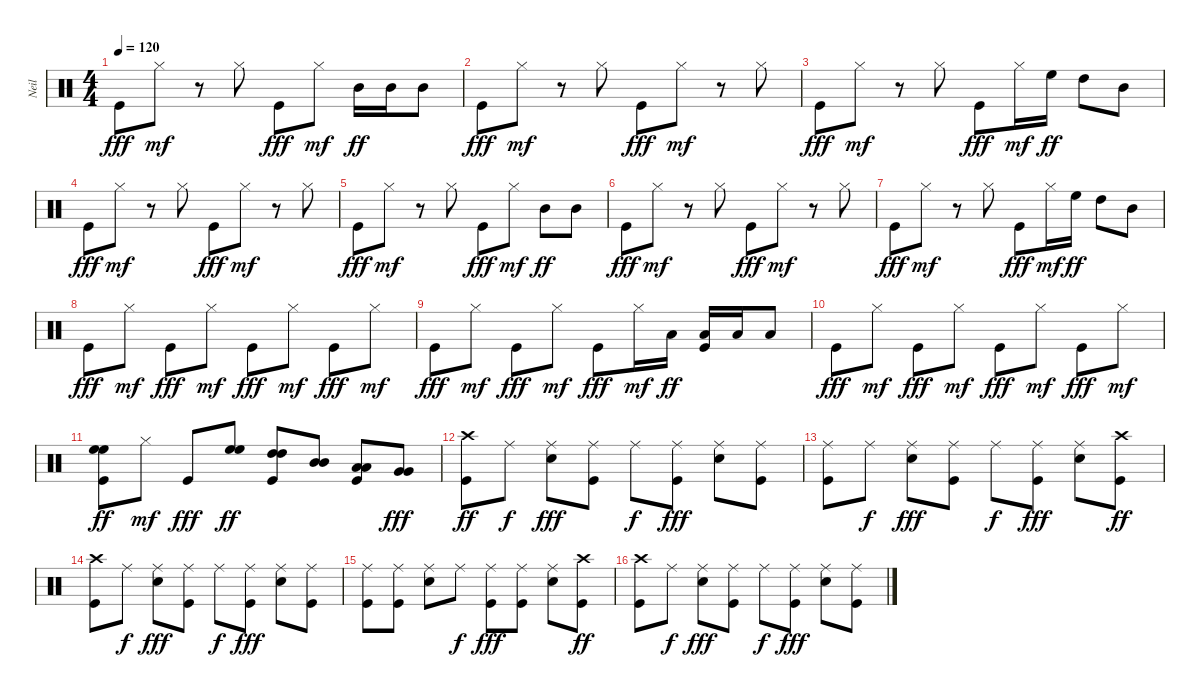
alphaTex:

\track ("Neil" "Neil") {instrument percussion}
\staff {score}
\articulation defaults
\ts (4 4)
\tempo 120
\clef neutral
\ks c "Kick (hit)".8{dy fff} "Hi-Hat (closed)".8{dy mf}
r.8 "Hi-Hat (closed)".8 "Kick (hit)".8{dy fff} "Hi-Hat (closed)".8{dy mf} "Mid Tom (hit)".16{dy ff} "Mid Tom (hit)".16 "Mid Tom (hit)".8 |
"Kick (hit)".8{dy fff} "Hi-Hat (closed)".8{dy mf} r.8 "Hi-Hat (closed)".8 "Kick (hit)".8{dy fff} "Hi-Hat (closed)".8{dy mf} r.8 "Hi-Hat (closed)".8 |
"Kick (hit)".8{dy fff} "Hi-Hat (closed)".8{dy mf} r.8 "Hi-Hat (closed)".8 "Kick (hit)".8{dy fff} "Hi-Hat (closed)".16{dy mf} "High Floor Tom (hit)".16{dy ff} "High Tom (hit)".8 "Mid Tom (hit)".8 |
"Kick (hit)".8{dy fff} "Hi-Hat (closed)".8{dy mf} r.8 "Hi-Hat (closed)".8 "Kick (hit)".8{dy fff} "Hi-Hat (closed)".8{dy mf} r.8 "Hi-Hat (closed)".8 |
"Kick (hit)".8{dy fff} "Hi-Hat (closed)".8{dy mf} r.8 "Hi-Hat (closed)".8 "Kick (hit)".8{dy fff} "Hi-Hat (closed)".8{dy mf} "Mid Tom (hit)".8{dy ff} "Mid Tom (hit)".8 |
"Kick (hit)".8{dy fff} "Hi-Hat (closed)".8{dy mf} r.8 "Hi-Hat (closed)".8 "Kick (hit)".8{dy fff} "Hi-Hat (closed)".8{dy mf} r.8 "Hi-Hat (closed)".8 |
"Kick (hit)".8{dy fff} "Hi-Hat (closed)".8{dy mf} r.8 "Hi-Hat (closed)".8 "Kick (hit)".8{dy fff} "Hi-Hat (closed)".16{dy mf} "High Floor Tom (hit)".16{dy ff} "High Tom (hit)".8 "Mid Tom (hit)".8 |
"Kick (hit)".8{dy fff} "Hi-Hat (closed)".8{dy mf} "Kick (hit)".8{dy fff} "Hi-Hat (closed)".8{dy mf} "Kick (hit)".8{dy fff} "Hi-Hat (closed)".8{dy mf} "Kick (hit)".8{dy fff} "Hi-Hat (closed)".8{dy mf} |
"Kick (hit)".8{dy fff} "Hi-Hat (closed)".8{dy mf} "Kick (hit)".8{dy fff} "Hi-Hat (closed)".8{dy mf} "Kick (hit)".8{dy fff} "Hi-Hat (closed)".16{dy mf} "Low Tom (hit)".16{dy ff} ("Kick (hit)" "Low Tom (hit)").16 "Low Tom (hit)".16 "Low Tom (hit)".8 |
"Kick (hit)".8{dy fff} "Hi-Hat (closed)".8{dy mf} "Kick (hit)".8{dy fff} "Hi-Hat (closed)".8{dy mf} "Kick (hit)".8{dy fff} "Hi-Hat (closed)".8{dy mf} "Kick (hit)".8{dy fff} "Hi-Hat (closed)".8{dy mf} |
("High Floor Tom (hit)" "Kick (hit)" "High Floor Tom (hit)").8{dy ff} "Hi-Hat (closed)".8{dy mf} "Kick (hit)".8{dy fff} ("High Floor Tom (hit)" "High Floor Tom (hit)").8{dy ff} ("High Tom (hit)" "Kick (hit)" "High Tom (hit)").8 ("Mid Tom (hit)" "Mid Tom (hit)").8 ("Low Tom (hit)" "Kick (hit)" "Low Tom (hit)").8 ("Very Low Tom (hit)" "Very Low Tom (hit)").8{dy fff} |
("Kick (hit)" "Crash high (hit)").8{dy ff} "Ride (middle)".8{dy f} ("Snare (hit) 2" "Ride (middle)").8{dy fff} ("Kick (hit)" "Ride (middle)").8 "Ride (middle)".8{dy f} ("Kick (hit)" "Ride (middle)").8{dy fff} ("Snare (hit) 2" "Ride (middle)").8 ("Kick (hit)" "Ride (middle)").8 |
("Kick (hit)" "Ride (middle)").8 "Ride (middle)".8{dy f} ("Snare (hit) 2" "Ride (middle)").8{dy fff} ("Kick (hit)" "Ride (middle)").8 "Ride (middle)".8{dy f} ("Kick (hit)" "Ride (middle)").8{dy fff} ("Snare (hit) 2" "Ride (middle)").8 ("Kick (hit)" "Crash high (hit)").8{dy ff} |
("Kick (hit)" "Crash high (hit)").8 "Ride (middle)".8{dy f} ("Snare (hit) 2" "Ride (middle)").8{dy fff} ("Kick (hit)" "Ride (middle)").8 "Ride (middle)".8{dy f} ("Kick (hit)" "Ride (middle)").8{dy fff} ("Snare (hit) 2" "Ride (middle)").8 ("Kick (hit)" "Ride (middle)").8 |
("Kick (hit)" "Ride (middle)").8 ("Kick (hit)" "Ride (middle)").8 ("Snare (hit) 2" "Ride (middle)").8 "Ride (middle)".8{dy f} ("Kick (hit)" "Ride (middle)").8{dy fff} ("Kick (hit)" "Ride (middle)").8 ("Snare (hit) 2" "Ride (middle)").8 ("Kick (hit)" "Crash high (hit)").8{dy ff} |
("Kick (hit)" "Crash high (hit)").8 "Ride (middle)".8{dy f} ("Snare (hit) 2" "Ride (middle)").8{dy fff} ("Kick (hit)" "Ride (middle)").8 "Ride (middle)".8{dy f} ("Kick (hit)" "Ride (middle)").8{dy fff} ("Snare (hit) 2" "Ride (middle)").8 ("Kick (hit)" "Ride (middle)").8
